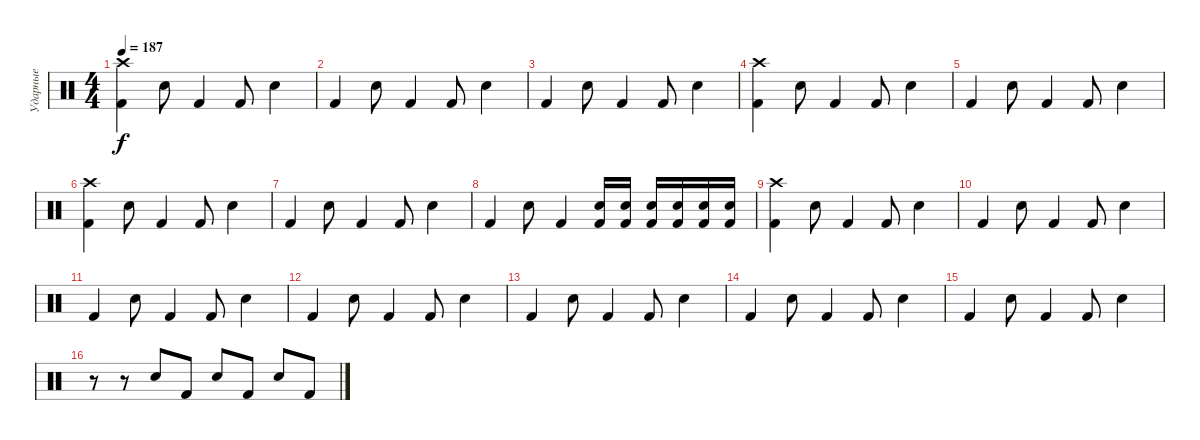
\track ("Ударные" "Ударные") {instrument percussion}
\staff {score}
\articulation defaults
\ts (4 4)
\tempo 187
\clef neutral
\ks c
("Crash high (hit)" "Kick (hit) 2").4{dy f} "Snare (hit) 2".8 "Kick (hit) 2".4 "Kick (hit) 2".8 "Snare (hit) 2".4 |
"Kick (hit) 2".4 "Snare (hit) 2".8 "Kick (hit) 2".4 "Kick (hit) 2".8 "Snare (hit) 2".4 |
"Kick (hit) 2".4 "Snare (hit) 2".8 "Kick (hit) 2".4 "Kick (hit) 2".8 "Snare (hit) 2".4 |
("Crash high (hit)" "Kick (hit) 2").4 "Snare (hit) 2".8 "Kick (hit) 2".4 "Kick (hit) 2".8 "Snare (hit) 2".4 |
"Kick (hit) 2".4 "Snare (hit) 2".8 "Kick (hit) 2".4 "Kick (hit) 2".8 "Snare (hit) 2".4 |
("Crash high (hit)" "Kick (hit) 2").4 "Snare (hit) 2".8 "Kick (hit) 2".4 "Kick (hit) 2".8 "Snare (hit) 2".4 |
"Kick (hit) 2".4 "Snare (hit) 2".8 "Kick (hit) 2".4 "Kick (hit) 2".8 "Snare (hit) 2".4 |
"Kick (hit) 2".4 "Snare (hit) 2".8 "Kick (hit) 2".4 ("Kick (hit) 2" "Snare (hit) 2").16 ("Kick (hit) 2" "Snare (hit) 2").16 ("Kick (hit) 2" "Snare (hit) 2").16 ("Kick (hit) 2" "Snare (hit) 2").16 ("Kick (hit) 2" "Snare (hit) 2").16 ("Kick (hit) 2" "Snare (hit) 2").16 |
("Crash high (hit)" "Kick (hit) 2").4 "Snare (hit) 2".8 "Kick (hit) 2".4 "Kick (hit) 2".8 "Snare (hit) 2".4 |
"Kick (hit) 2".4 "Snare (hit) 2".8 "Kick (hit) 2".4 "Kick (hit) 2".8 "Snare (hit) 2".4 |
"Kick (hit) 2".4 "Snare (hit) 2".8 "Kick (hit) 2".4 "Kick (hit) 2".8 "Snare (hit) 2".4 |
"Kick (hit) 2".4 "Snare (hit) 2".8 "Kick (hit) 2".4 "Kick (hit) 2".8 "Snare (hit) 2".4 |
"Kick (hit) 2".4 "Snare (hit) 2".8 "Kick (hit) 2".4 "Kick (hit) 2".8 "Snare (hit) 2".4 |
"Kick (hit) 2".4 "Snare (hit) 2".8 "Kick (hit) 2".4 "Kick (hit) 2".8 "Snare (hit) 2".4 |
"Kick (hit) 2".4 "Snare (hit) 2".8 "Kick (hit) 2".4 "Kick (hit) 2".8 "Snare (hit) 2".4 |
r.8 r.8 "Snare (hit) 2".8 "Kick (hit) 2".8 "Snare (hit) 2".8 "Kick (hit) 2".8 "Snare (hit) 2".8 "Kick (hit) 2".8
